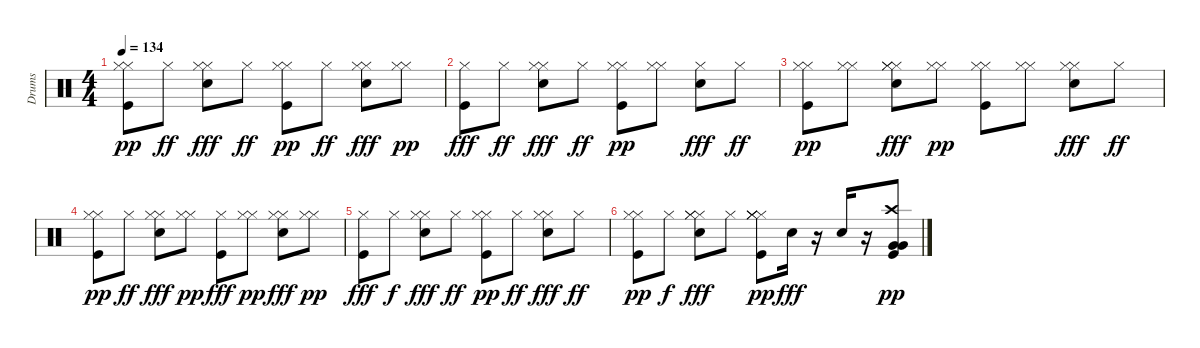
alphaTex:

\track ("Drums" "Drums") {instrument percussion}
\staff {score}
\articulation defaults
\ts (4 4)
\tempo 134
\clef neutral
\ks c
("Hi-Hat (closed)" "Hi-Hat (closed)" "Kick (hit)").8{dy pp} "Hi-Hat (closed)".8{dy ff} ("Hi-Hat (closed)" "Hi-Hat (closed)" "Electric Snare (hit)").8{dy fff} "Hi-Hat (closed)".8{dy ff} ("Hi-Hat (closed)" "Hi-Hat (closed)" "Kick (hit)").8{dy pp} "Hi-Hat (closed)".8{dy ff} ("Hi-Hat (closed)" "Hi-Hat (closed)" "Electric Snare (hit)").8{dy fff} ("Hi-Hat (closed)" "Hi-Hat (closed)").8{dy pp} |
("Hi-Hat (closed)" "Kick (hit)").8{dy fff} "Hi-Hat (closed)".8{dy ff} ("Hi-Hat (closed)" "Hi-Hat (closed)" "Electric Snare (hit)").8{dy fff} "Hi-Hat (closed)".8{dy ff} ("Hi-Hat (closed)" "Hi-Hat (closed)" "Kick (hit)").8{dy pp} ("Hi-Hat (closed)" "Hi-Hat (closed)").8 ("Hi-Hat (closed)" "Electric Snare (hit)").8{dy fff} "Hi-Hat (closed)".8{dy ff} |
("Hi-Hat (closed)" "Hi-Hat (closed)" "Kick (hit)").8{dy pp} ("Hi-Hat (closed)" "Hi-Hat (closed)").8 ("Hi-Hat (closed)" "Hi-Hat (closed)" "Hi-Hat (closed)" "Electric Snare (hit)").8{dy fff} ("Hi-Hat (closed)" "Hi-Hat (closed)").8{dy pp} ("Hi-Hat (closed)" "Hi-Hat (closed)" "Kick (hit)").8 ("Hi-Hat (closed)" "Hi-Hat (closed)").8 ("Hi-Hat (closed)" "Hi-Hat (closed)" "Electric Snare (hit)").8{dy fff} "Hi-Hat (closed)".8{dy ff} |
("Hi-Hat (closed)" "Hi-Hat (closed)" "Kick (hit)").8{dy pp} "Hi-Hat (closed)".8{dy ff} ("Hi-Hat (closed)" "Hi-Hat (closed)" "Electric Snare (hit)").8{dy fff} ("Hi-Hat (closed)" "Hi-Hat (closed)").8{dy pp} ("Hi-Hat (closed)" "Kick (hit)").8{dy fff} ("Hi-Hat (closed)" "Hi-Hat (closed)").8{dy pp} ("Hi-Hat (closed)" "Hi-Hat (closed)" "Electric Snare (hit)").8{dy fff} ("Hi-Hat (closed)" "Hi-Hat (closed)").8{dy pp} |
("Hi-Hat (closed)" "Kick (hit)").8{dy fff} "Hi-Hat (closed)".8{dy f} ("Hi-Hat (closed)" "Hi-Hat (closed)" "Electric Snare (hit)").8{dy fff} "Hi-Hat (closed)".8{dy ff} ("Hi-Hat (closed)" "Hi-Hat (closed)" "Kick (hit)").8{dy pp} "Hi-Hat (closed)".8{dy ff} ("Hi-Hat (closed)" "Hi-Hat (closed)" "Electric Snare (hit)").8{dy fff} "Hi-Hat (closed)".8{dy ff} |
("Hi-Hat (closed)" "Hi-Hat (closed)" "Kick (hit)").8{dy pp} "Hi-Hat (closed)".8{dy f} ("Hi-Hat (closed)" "Hi-Hat (closed)" "Hi-Hat (closed)" "Electric Snare (hit)").8{dy fff} "Hi-Hat (closed)".8 ("Hi-Hat (closed)" "Hi-Hat (closed)" "Hi-Hat (closed)" "Hi-Hat (closed)" "Kick (hit)").8{dy pp} "Electric Snare (hit)".16{dy fff} r.16 "Electric Snare (hit)".16 r.16 ("Crash high (hit)" "Very Low Tom (hit)" "Very Low Tom (hit)" "Kick (hit)").8{dy pp}
